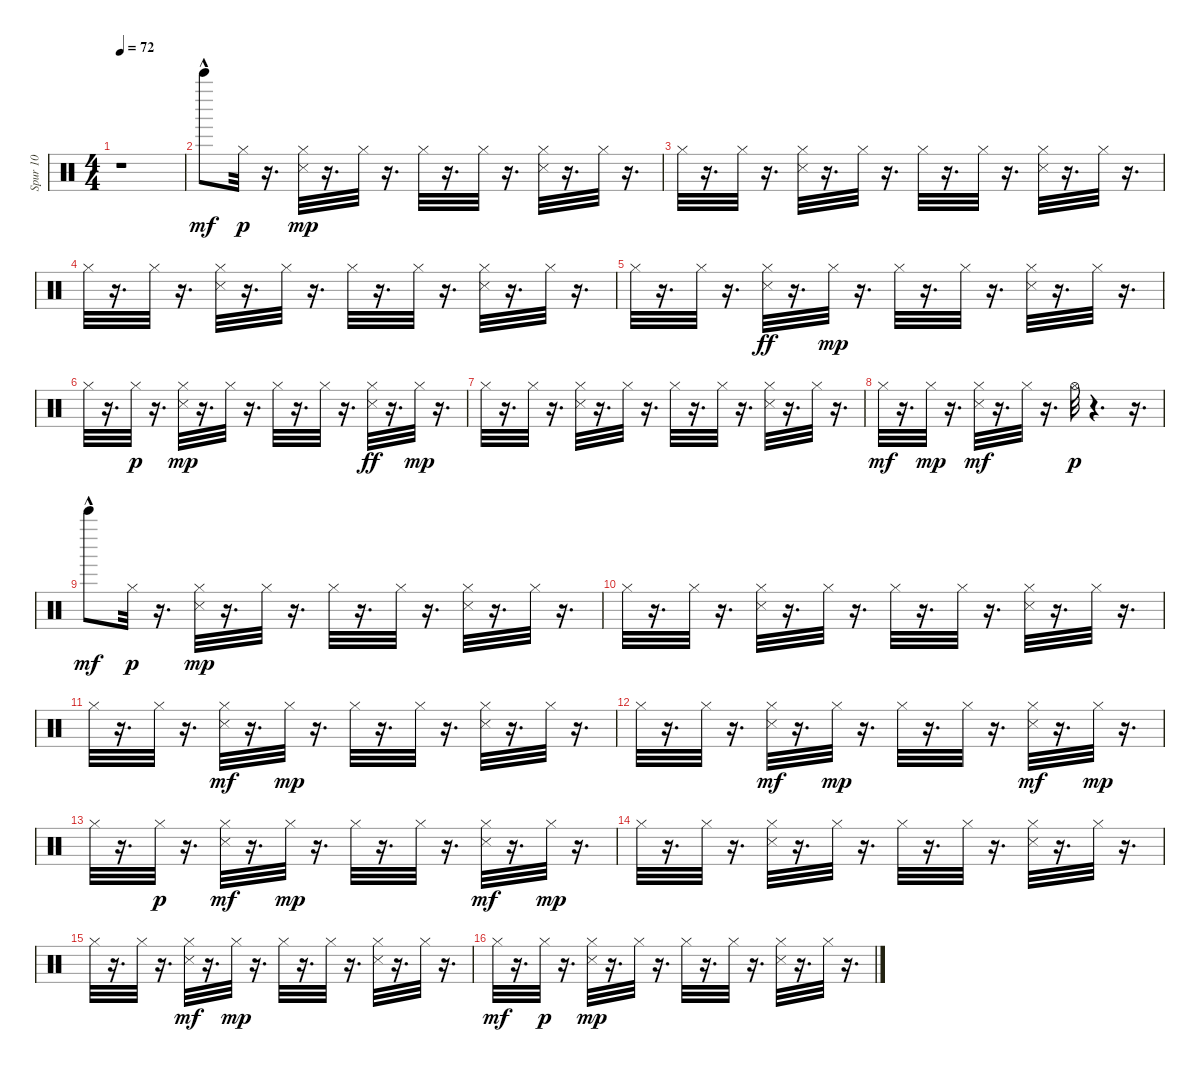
\track ("Spur 10" "Spur 10") {instrument percussion}
\staff {score}
\articulation defaults
\ts (4 4)
\tempo 72
\clef neutral
\ks c
r.1{dy mf} |
"Bell Tree (hit)"{hac}.8 "Hi-Hat (closed)".32{dy p balance 8} r.16{d} ("Hi-Hat (closed)" "Snare (side stick) 3").32{dy mp} r.16{d} "Hi-Hat (closed)".32 r.16{d} "Hi-Hat (closed)".32 r.16{d} "Hi-Hat (closed)".32 r.16{d} ("Hi-Hat (closed)" "Snare (side stick) 3").32 r.16{d} "Hi-Hat (closed)".32 r.16{d} |
"Hi-Hat (closed)".32 r.16{d} "Hi-Hat (closed)".32 r.16{d} ("Snare (side stick) 3" "Hi-Hat (closed)").32 r.16{d} "Hi-Hat (closed)".32 r.16{d} "Hi-Hat (closed)".32 r.16{d} "Hi-Hat (closed)".32 r.16{d} ("Snare (side stick) 3" "Hi-Hat (closed)").32 r.16{d} "Hi-Hat (closed)".32 r.16{d} |
"Hi-Hat (closed)".32 r.16{d} "Hi-Hat (closed)".32 r.16{d} ("Hi-Hat (closed)" "Snare (side stick) 3").32 r.16{d} "Hi-Hat (closed)".32 r.16{d} "Hi-Hat (closed)".32 r.16{d} "Hi-Hat (closed)".32 r.16{d} ("Snare (side stick) 3" "Hi-Hat (closed)").32 r.16{d} "Hi-Hat (closed)".32 r.16{d} |
"Hi-Hat (closed)".32 r.16{d} "Hi-Hat (closed)".32 r.16{d} ("Hi-Hat (closed)" "Snare (side stick) 3").32{dy ff} r.16{d} "Hi-Hat (closed)".32{dy mp} r.16{d} "Hi-Hat (closed)".32 r.16{d} "Hi-Hat (closed)".32 r.16{d} ("Hi-Hat (closed)" "Snare (side stick) 3").32 r.16{d} "Hi-Hat (closed)".32 r.16{d} |
"Hi-Hat (closed)".32 r.16{d} "Hi-Hat (closed)".32{dy p} r.16{d} ("Hi-Hat (closed)" "Snare (side stick) 3").32{dy mp} r.16{d} "Hi-Hat (closed)".32 r.16{d} "Hi-Hat (closed)".32 r.16{d} "Hi-Hat (closed)".32 r.16{d} ("Hi-Hat (closed)" "Snare (side stick) 3").32{dy ff} r.16{d} "Hi-Hat (closed)".32{dy mp} r.16{d} |
"Hi-Hat (closed)".32 r.16{d} "Hi-Hat (closed)".32 r.16{d} ("Snare (side stick) 3" "Hi-Hat (closed)").32 r.16{d} "Hi-Hat (closed)".32 r.16{d} "Hi-Hat (closed)".32 r.16{d} "Hi-Hat (closed)".32 r.16{d} ("Snare (side stick) 3" "Hi-Hat (closed)").32 r.16{d} "Hi-Hat (closed)".32 r.16{d} |
"Hi-Hat (closed)".32{dy mf} r.16{d} "Hi-Hat (closed)".32{dy mp} r.16{d} ("Snare (side stick) 3" "Hi-Hat (closed)").32{dy mf} r.16{d} "Hi-Hat (closed)".32 r.16{d} "Hi-Hat (open)".32{dy p} r.4{d} r.16{d} |
"Bell Tree (hit)"{hac}.8{dy mf} "Hi-Hat (closed)".32{dy p balance 8} r.16{d} ("Hi-Hat (closed)" "Snare (side stick) 3").32{dy mp} r.16{d} "Hi-Hat (closed)".32 r.16{d} "Hi-Hat (closed)".32 r.16{d} "Hi-Hat (closed)".32 r.16{d} ("Hi-Hat (closed)" "Snare (side stick) 3").32 r.16{d} "Hi-Hat (closed)".32 r.16{d} |
"Hi-Hat (closed)".32 r.16{d} "Hi-Hat (closed)".32 r.16{d} ("Snare (side stick) 3" "Hi-Hat (closed)").32 r.16{d} "Hi-Hat (closed)".32 r.16{d} "Hi-Hat (closed)".32 r.16{d} "Hi-Hat (closed)".32 r.16{d} ("Snare (side stick) 3" "Hi-Hat (closed)").32 r.16{d} "Hi-Hat (closed)".32 r.16{d} |
"Hi-Hat (closed)".32 r.16{d} "Hi-Hat (closed)".32 r.16{d} ("Hi-Hat (closed)" "Snare (side stick) 3").32{dy mf} r.16{d} "Hi-Hat (closed)".32{dy mp} r.16{d} "Hi-Hat (closed)".32 r.16{d} "Hi-Hat (closed)".32 r.16{d} ("Snare (side stick) 3" "Hi-Hat (closed)").32 r.16{d} "Hi-Hat (closed)".32 r.16{d} |
"Hi-Hat (closed)".32 r.16{d} "Hi-Hat (closed)".32 r.16{d} ("Hi-Hat (closed)" "Snare (side stick) 3").32{dy mf} r.16{d} "Hi-Hat (closed)".32{dy mp} r.16{d} "Hi-Hat (closed)".32 r.16{d} "Hi-Hat (closed)".32 r.16{d} ("Hi-Hat (closed)" "Snare (side stick) 3").32{dy mf} r.16{d} "Hi-Hat (closed)".32{dy mp} r.16{d} |
"Hi-Hat (closed)".32 r.16{d} "Hi-Hat (closed)".32{dy p} r.16{d} ("Hi-Hat (closed)" "Snare (side stick) 3").32{dy mf} r.16{d} "Hi-Hat (closed)".32{dy mp} r.16{d} "Hi-Hat (closed)".32 r.16{d} "Hi-Hat (closed)".32 r.16{d} ("Hi-Hat (closed)" "Snare (side stick) 3").32{dy mf} r.16{d} "Hi-Hat (closed)".32{dy mp} r.16{d} |
"Hi-Hat (closed)".32 r.16{d} "Hi-Hat (closed)".32 r.16{d} ("Snare (side stick) 3" "Hi-Hat (closed)").32 r.16{d} "Hi-Hat (closed)".32 r.16{d} "Hi-Hat (closed)".32 r.16{d} "Hi-Hat (closed)".32 r.16{d} ("Snare (side stick) 3" "Hi-Hat (closed)").32 r.16{d} "Hi-Hat (closed)".32 r.16{d} |
"Hi-Hat (closed)".32 r.16{d} "Hi-Hat (closed)".32 r.16{d} ("Hi-Hat (closed)" "Snare (side stick) 3").32{dy mf} r.16{d} "Hi-Hat (closed)".32{dy mp} r.16{d} "Hi-Hat (closed)".32 r.16{d} "Hi-Hat (closed)".32 r.16{d} ("Snare (side stick) 3" "Hi-Hat (closed)").32 r.16{d} "Hi-Hat (closed)".32 r.16{d} |
"Hi-Hat (closed)".32{dy mf} r.16{d} "Hi-Hat (closed)".32{dy p} r.16{d} ("Hi-Hat (closed)" "Snare (side stick) 3").32{dy mp} r.16{d} "Hi-Hat (closed)".32 r.16{d} "Hi-Hat (closed)".32 r.16{d} "Hi-Hat (closed)".32 r.16{d} ("Hi-Hat (closed)" "Snare (side stick) 3").32 r.16{d} "Hi-Hat (closed)".32 r.16{d}
